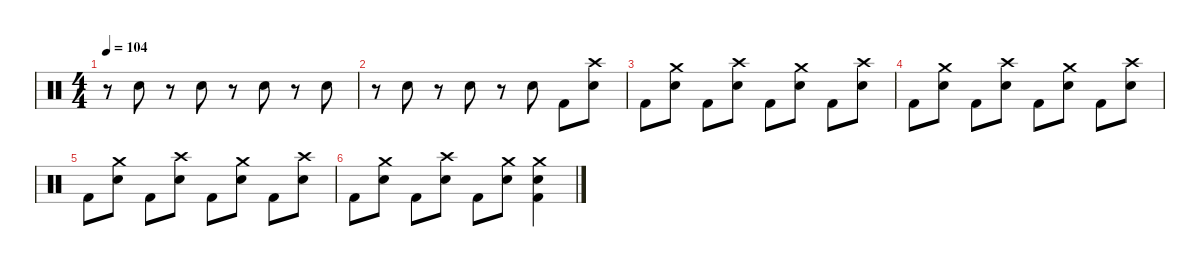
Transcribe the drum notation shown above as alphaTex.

\defaultSystemsLayout 4
\hideDynamics
\bracketExtendMode nobrackets
\singleTrackTrackNamePolicy hidden
\multiTrackTrackNamePolicy hidden
\firstSystemTrackNameMode fullname
\firstSystemTrackNameOrientation horizontal
\otherSystemsTrackNameOrientation horizontal
\track ("Drums" "drm.") {instrument percussion}
\staff {score}
\articulation defaults
\ts (4 4)
\tempo 104
\clef neutral
\ks c
r.8{dy f beam Down} "Snare (hit) 2".8{beam Down} r.8{beam Down} "Snare (hit) 2".8{beam Down} r.8{beam Down} "Snare (hit) 2".8{beam Down} r.8{beam Down} "Snare (hit) 2".8{beam Down} |
r.8{beam Down} "Snare (hit) 2".8{beam Down} r.8{beam Down} "Snare (hit) 2".8{beam Down} r.8{beam Down} "Snare (hit) 2".8{beam Down} "Kick (hit) 2".8{beam Down} ("Crash high (hit)" "Snare (hit) 2").8{beam Down} |
"Kick (hit) 2".8{beam Down} ("Crash medium (hit)" "Snare (hit) 2").8{beam Down} "Kick (hit) 2".8{beam Down} ("Crash high (hit)" "Snare (hit) 2").8{beam Down} "Kick (hit) 2".8{beam Down} ("Crash medium (hit)" "Snare (hit) 2").8{beam Down} "Kick (hit) 2".8{beam Down} ("Crash high (hit)" "Snare (hit) 2").8{beam Down} |
"Kick (hit) 2".8{beam Down} ("Crash medium (hit)" "Snare (hit) 2").8{beam Down} "Kick (hit) 2".8{beam Down} ("Crash high (hit)" "Snare (hit) 2").8{beam Down} "Kick (hit) 2".8{beam Down} ("Crash medium (hit)" "Snare (hit) 2").8{beam Down} "Kick (hit) 2".8{beam Down} ("Crash high (hit)" "Snare (hit) 2").8{beam Down} |
"Kick (hit) 2".8{beam Down} ("Crash medium (hit)" "Snare (hit) 2").8{beam Down} "Kick (hit) 2".8{beam Down} ("Crash high (hit)" "Snare (hit) 2").8{beam Down} "Kick (hit) 2".8{beam Down} ("Crash medium (hit)" "Snare (hit) 2").8{beam Down} "Kick (hit) 2".8{beam Down} ("Crash high (hit)" "Snare (hit) 2").8{beam Down} |
"Kick (hit) 2".8{beam Down} ("Crash medium (hit)" "Snare (hit) 2").8{beam Down} "Kick (hit) 2".8{beam Down} ("Crash high (hit)" "Snare (hit) 2").8{beam Down} "Kick (hit) 2".8{beam Down} ("Crash medium (hit)" "Snare (hit) 2").8{beam Down} ("Crash medium (hit)" "Snare (hit) 2" "Kick (hit) 2").4{beam Down}
